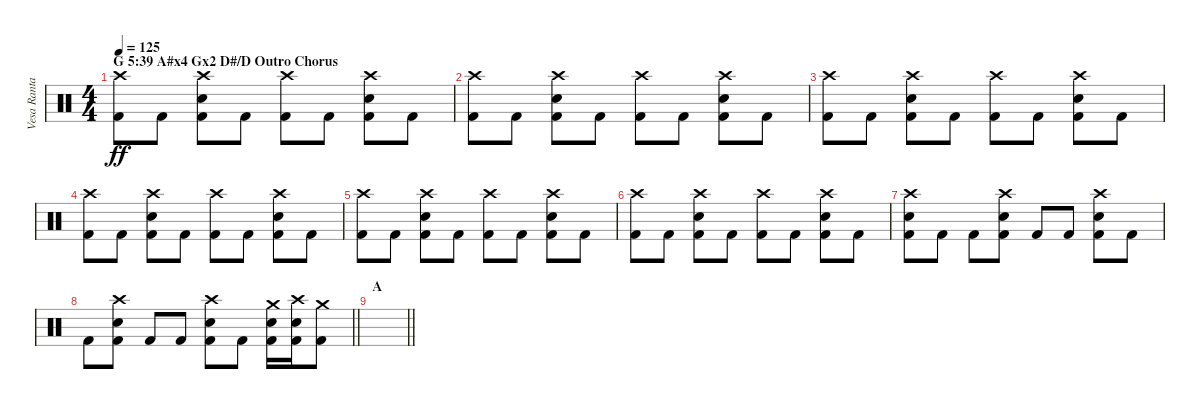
\track ("Vesa Ranta (drums)" "Vesa Ranta") {instrument percussion}
\staff {score}
\articulation defaults
\ts (4 4)
\section ("" "G 5:39 A#x4 Gx2 D#/D Outro Chorus")
\tempo 125
\clef neutral
\ks c
("Crash high (hit)" "Kick (hit) 2").8{dy ff} "Kick (hit) 2".8 ("Crash high (hit)" "Electric Snare (hit)" "Kick (hit) 2").8 "Kick (hit) 2".8 ("Crash high (hit)" "Kick (hit) 2").8 "Kick (hit) 2".8 ("Crash high (hit)" "Electric Snare (hit)" "Kick (hit) 2").8 "Kick (hit) 2".8 |
("Crash high (hit)" "Kick (hit) 2").8 "Kick (hit) 2".8 ("Crash high (hit)" "Electric Snare (hit)" "Kick (hit) 2").8 "Kick (hit) 2".8 ("Crash high (hit)" "Kick (hit) 2").8 "Kick (hit) 2".8 ("Crash high (hit)" "Electric Snare (hit)" "Kick (hit) 2").8 "Kick (hit) 2".8 |
("Crash high (hit)" "Kick (hit) 2").8 "Kick (hit) 2".8 ("Crash high (hit)" "Electric Snare (hit)" "Kick (hit) 2").8 "Kick (hit) 2".8 ("Crash high (hit)" "Kick (hit) 2").8 "Kick (hit) 2".8 ("Crash high (hit)" "Electric Snare (hit)" "Kick (hit) 2").8 "Kick (hit) 2".8 |
("Crash high (hit)" "Kick (hit) 2").8 "Kick (hit) 2".8 ("Crash high (hit)" "Electric Snare (hit)" "Kick (hit) 2").8 "Kick (hit) 2".8 ("Crash high (hit)" "Kick (hit) 2").8 "Kick (hit) 2".8 ("Crash high (hit)" "Electric Snare (hit)" "Kick (hit) 2").8 "Kick (hit) 2".8 |
("Crash high (hit)" "Kick (hit) 2").8 "Kick (hit) 2".8 ("Crash high (hit)" "Electric Snare (hit)" "Kick (hit) 2").8 "Kick (hit) 2".8 ("Crash high (hit)" "Kick (hit) 2").8 "Kick (hit) 2".8 ("Crash high (hit)" "Electric Snare (hit)" "Kick (hit) 2").8 "Kick (hit) 2".8 |
("Crash high (hit)" "Kick (hit) 2").8 "Kick (hit) 2".8 ("Crash high (hit)" "Electric Snare (hit)" "Kick (hit) 2").8 "Kick (hit) 2".8 ("Crash high (hit)" "Kick (hit) 2").8 "Kick (hit) 2".8 ("Crash high (hit)" "Electric Snare (hit)" "Kick (hit) 2").8 "Kick (hit) 2".8 |
("Crash high (hit)" "Electric Snare (hit)" "Kick (hit) 2").8 "Kick (hit) 2".8 "Kick (hit) 2".8 ("Crash high (hit)" "Electric Snare (hit)" "Kick (hit) 2").8 "Kick (hit) 2".8 "Kick (hit) 2".8 ("Crash high (hit)" "Electric Snare (hit)" "Kick (hit) 2").8 "Kick (hit) 2".8 |
\barLineRight lightlight "Kick (hit) 2".8
("Crash high (hit)" "Electric Snare (hit)" "Kick (hit) 2").8 "Kick (hit) 2".8 "Kick (hit) 2".8 ("Crash high (hit)" "Electric Snare (hit)" "Kick (hit) 2").8 "Kick (hit) 2".8 ("Crash medium (hit)" "Electric Snare (hit)" "Kick (hit) 2").16 ("Crash high (hit)" "Electric Snare (hit)" "Kick (hit) 2").16 ("Crash medium (hit)" "Kick (hit) 2").8 |
\section ("" "A")
\barLineRight lightlight
